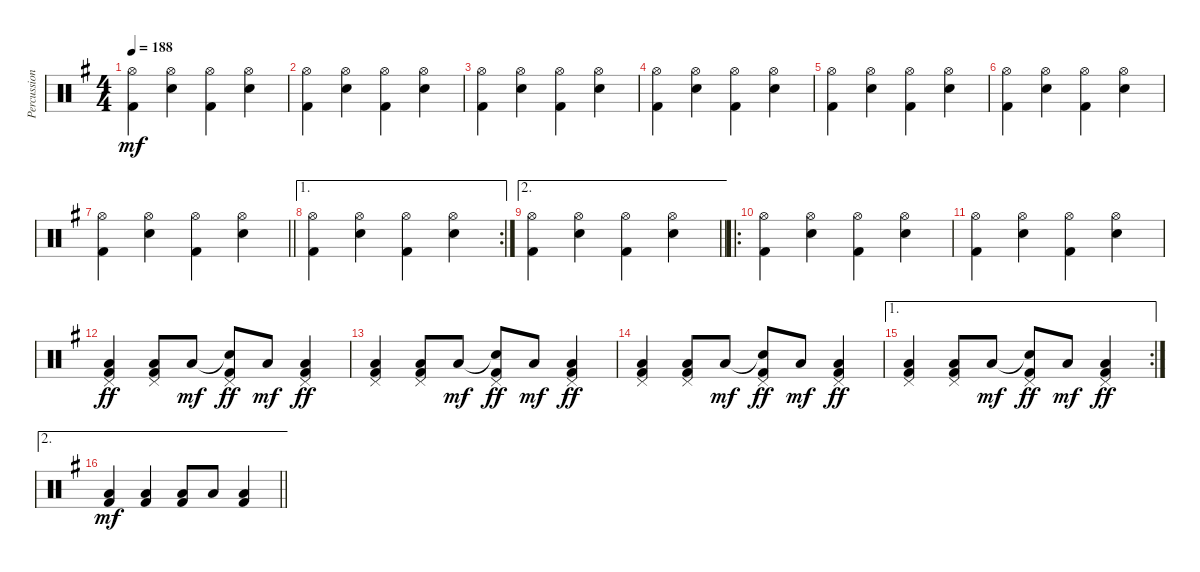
\track ("Percussion" "Percussion") {instrument percussion}
\staff {score}
\articulation defaults
\ts (4 4)
\tempo 188
\clef neutral
\ks g
("Hi-Hat (open)" "Kick (hit) 2").4{dy mf} ("Hi-Hat (open)" "Snare (hit) 2").4 ("Hi-Hat (open)" "Kick (hit) 2").4 ("Hi-Hat (open)" "Snare (hit) 2").4 |
("Hi-Hat (open)" "Kick (hit) 2").4 ("Hi-Hat (open)" "Snare (hit) 2").4 ("Hi-Hat (open)" "Kick (hit) 2").4 ("Hi-Hat (open)" "Snare (hit) 2").4 |
("Hi-Hat (open)" "Kick (hit) 2").4 ("Hi-Hat (open)" "Snare (hit) 2").4 ("Hi-Hat (open)" "Kick (hit) 2").4 ("Hi-Hat (open)" "Snare (hit) 2").4 |
("Hi-Hat (open)" "Kick (hit) 2").4 ("Hi-Hat (open)" "Snare (hit) 2").4 ("Hi-Hat (open)" "Kick (hit) 2").4 ("Hi-Hat (open)" "Snare (hit) 2").4 |
("Hi-Hat (open)" "Kick (hit) 2").4 ("Hi-Hat (open)" "Snare (hit) 2").4 ("Hi-Hat (open)" "Kick (hit) 2").4 ("Hi-Hat (open)" "Snare (hit) 2").4 |
("Hi-Hat (open)" "Kick (hit) 2").4 ("Hi-Hat (open)" "Snare (hit) 2").4 ("Hi-Hat (open)" "Kick (hit) 2").4 ("Hi-Hat (open)" "Snare (hit) 2").4 |
\barLineRight lightlight
("Hi-Hat (open)" "Kick (hit) 2").4 ("Hi-Hat (open)" "Snare (hit) 2").4 ("Hi-Hat (open)" "Kick (hit) 2").4 ("Hi-Hat (open)" "Snare (hit) 2").4 |
\ae 1
\rc 2
("Hi-Hat (open)" "Kick (hit) 2").4 ("Hi-Hat (open)" "Snare (hit) 2").4 ("Hi-Hat (open)" "Kick (hit) 2").4 ("Hi-Hat (open)" "Snare (hit) 2").4 |
\ae 2
\barLineRight lightlight
("Hi-Hat (open)" "Kick (hit) 2").4 ("Hi-Hat (open)" "Snare (hit) 2").4 ("Hi-Hat (open)" "Kick (hit) 2").4 ("Hi-Hat (open)" "Snare (hit) 2").4 |
\ro
("Hi-Hat (open)" "Kick (hit) 2").4 ("Hi-Hat (open)" "Snare (hit) 2").4 ("Hi-Hat (open)" "Kick (hit) 2").4 ("Hi-Hat (open)" "Snare (hit) 2").4 |
("Hi-Hat (open)" "Kick (hit) 2").4 ("Hi-Hat (open)" "Snare (hit) 2").4 ("Hi-Hat (open)" "Kick (hit) 2").4 ("Hi-Hat (open)" "Snare (hit) 2").4 |
("Low Tom (hit)" "Kick (hit) 2" "Pedal Hi-Hat (hit)").4{dy ff} ("Low Tom (hit)" "Kick (hit) 2" "Pedal Hi-Hat (hit)").8 "Low Tom (hit)".8{dy mf} ("Snare (hit)"{t} "Kick (hit) 2" "Pedal Hi-Hat (hit)").8{dy ff} "Low Tom (hit)".8{dy mf} ("Low Tom (hit)" "Kick (hit) 2" "Pedal Hi-Hat (hit)").4{dy ff} |
("Low Tom (hit)" "Kick (hit) 2" "Pedal Hi-Hat (hit)").4 ("Low Tom (hit)" "Kick (hit) 2" "Pedal Hi-Hat (hit)").8 "Low Tom (hit)".8{dy mf} ("Snare (hit)"{t} "Kick (hit) 2" "Pedal Hi-Hat (hit)").8{dy ff} "Low Tom (hit)".8{dy mf} ("Low Tom (hit)" "Kick (hit) 2" "Pedal Hi-Hat (hit)").4{dy ff} |
("Low Tom (hit)" "Kick (hit) 2" "Pedal Hi-Hat (hit)").4 ("Low Tom (hit)" "Kick (hit) 2" "Pedal Hi-Hat (hit)").8 "Low Tom (hit)".8{dy mf} ("Snare (hit)"{t} "Kick (hit) 2" "Pedal Hi-Hat (hit)").8{dy ff} "Low Tom (hit)".8{dy mf} ("Low Tom (hit)" "Kick (hit) 2" "Pedal Hi-Hat (hit)").4{dy ff} |
\ae 1
\rc 2
("Low Tom (hit)" "Kick (hit) 2" "Pedal Hi-Hat (hit)").4 ("Low Tom (hit)" "Kick (hit) 2" "Pedal Hi-Hat (hit)").8 "Low Tom (hit)".8{dy mf} ("Snare (hit)"{t} "Kick (hit) 2" "Pedal Hi-Hat (hit)").8{dy ff} "Low Tom (hit)".8{dy mf} ("Low Tom (hit)" "Kick (hit) 2" "Pedal Hi-Hat (hit)").4{dy ff} |
\ae 2
\barLineRight lightlight
("Low Tom (hit)" "Kick (hit) 2").4{dy mf} ("Low Tom (hit)" "Kick (hit) 2").4 ("Low Tom (hit)" "Kick (hit) 2").8 "Low Tom (hit)".8 ("Low Tom (hit)" "Kick (hit) 2").4
